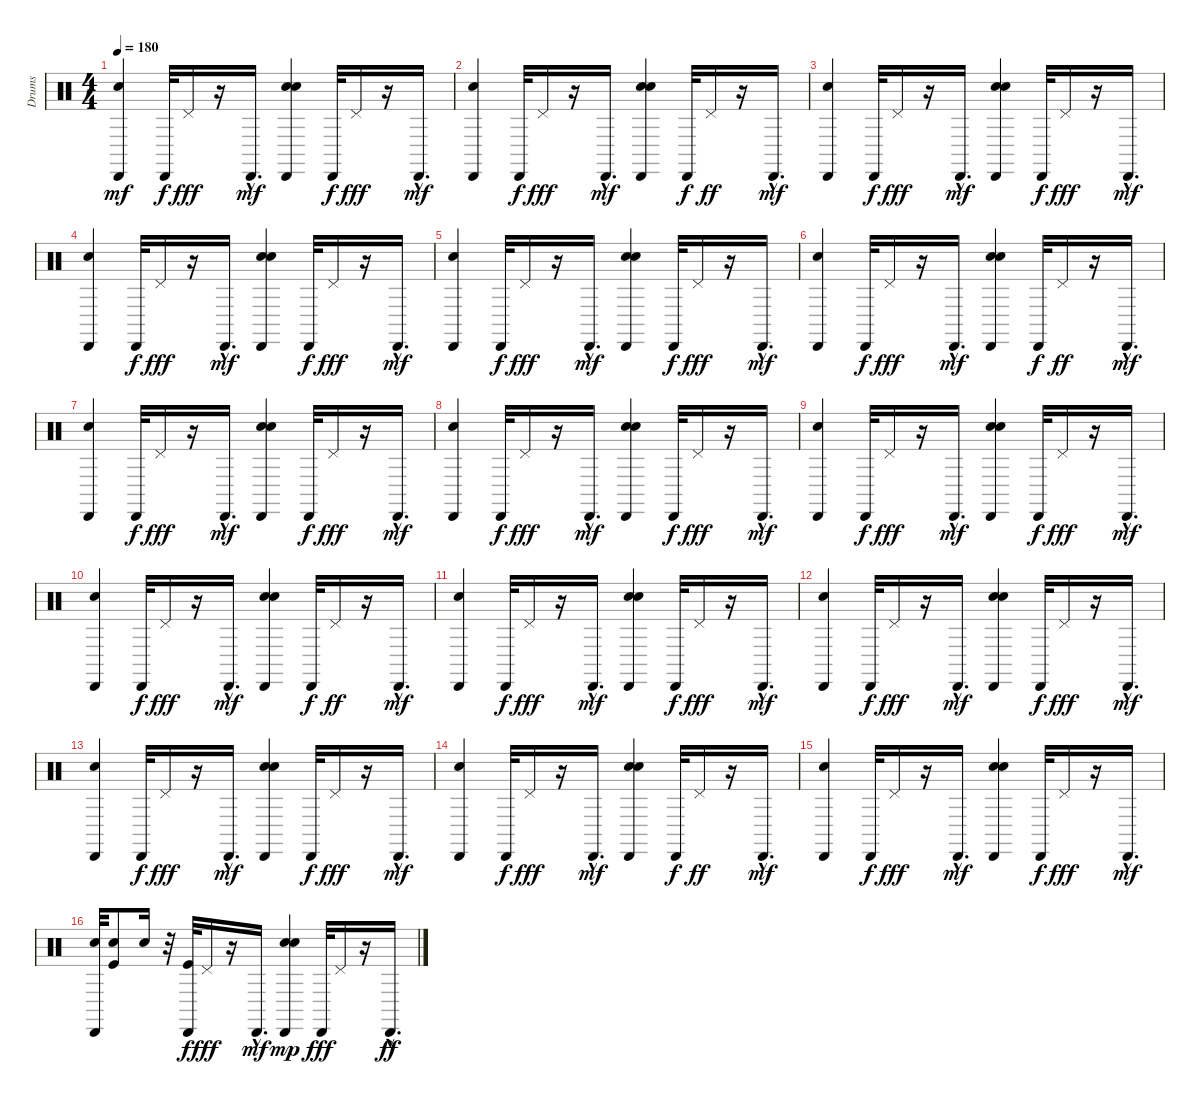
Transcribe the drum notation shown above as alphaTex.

\track ("Drums" "Drums") {instrument percussion}
\staff {score}
\articulation defaults
\ts (4 4)
\tempo 180
\clef neutral
\ks c
("Snare (hit) 2" "Cabasa (hit)").4{dy mf} "Cabasa (hit)".32{dy f} "Pedal Hi-Hat (hit)".16{dy fff} r.16 "Cabasa (hit)"{hac}.16{d dy mf} ("Snare (hit) 2" "Snare (hit) 2" "Cabasa (hit)").4 "Cabasa (hit)".32{dy f} "Pedal Hi-Hat (hit)".16{dy fff} r.16 "Cabasa (hit)"{hac}.16{d dy mf} |
("Snare (hit) 2" "Cabasa (hit)").4 "Cabasa (hit)".32{dy f} "Pedal Hi-Hat (hit)".16{dy fff} r.16 "Cabasa (hit)"{hac}.16{d dy mf} ("Snare (hit) 2" "Snare (hit) 2" "Cabasa (hit)").4 "Cabasa (hit)".32{dy f} "Pedal Hi-Hat (hit)".16{dy ff} r.16 "Cabasa (hit)"{hac}.16{d dy mf} |
("Snare (hit) 2" "Cabasa (hit)").4 "Cabasa (hit)".32{dy f} "Pedal Hi-Hat (hit)".16{dy fff} r.16 "Cabasa (hit)"{hac}.16{d dy mf} ("Snare (hit) 2" "Snare (hit) 2" "Cabasa (hit)").4 "Cabasa (hit)".32{dy f} "Pedal Hi-Hat (hit)".16{dy fff} r.16 "Cabasa (hit)"{hac}.16{d dy mf} |
("Snare (hit) 2" "Cabasa (hit)").4 "Cabasa (hit)".32{dy f} "Pedal Hi-Hat (hit)".16{dy fff} r.16 "Cabasa (hit)"{hac}.16{d dy mf} ("Snare (hit) 2" "Snare (hit) 2" "Cabasa (hit)").4 "Cabasa (hit)".32{dy f} "Pedal Hi-Hat (hit)".16{dy fff} r.16 "Cabasa (hit)"{hac}.16{d dy mf} |
("Snare (hit) 2" "Cabasa (hit)").4 "Cabasa (hit)".32{dy f} "Pedal Hi-Hat (hit)".16{dy fff} r.16 "Cabasa (hit)"{hac}.16{d dy mf} ("Snare (hit) 2" "Snare (hit) 2" "Cabasa (hit)").4 "Cabasa (hit)".32{dy f} "Pedal Hi-Hat (hit)".16{dy fff} r.16 "Cabasa (hit)"{hac}.16{d dy mf} |
("Snare (hit) 2" "Cabasa (hit)").4 "Cabasa (hit)".32{dy f} "Pedal Hi-Hat (hit)".16{dy fff} r.16 "Cabasa (hit)"{hac}.16{d dy mf} ("Snare (hit) 2" "Snare (hit) 2" "Cabasa (hit)").4 "Cabasa (hit)".32{dy f} "Pedal Hi-Hat (hit)".16{dy ff} r.16 "Cabasa (hit)"{hac}.16{d dy mf} |
("Snare (hit) 2" "Cabasa (hit)").4 "Cabasa (hit)".32{dy f} "Pedal Hi-Hat (hit)".16{dy fff} r.16 "Cabasa (hit)"{hac}.16{d dy mf} ("Snare (hit) 2" "Snare (hit) 2" "Cabasa (hit)").4 "Cabasa (hit)".32{dy f} "Pedal Hi-Hat (hit)".16{dy fff} r.16 "Cabasa (hit)"{hac}.16{d dy mf} |
("Snare (hit) 2" "Cabasa (hit)").4 "Cabasa (hit)".32{dy f} "Pedal Hi-Hat (hit)".16{dy fff} r.16 "Cabasa (hit)"{hac}.16{d dy mf} ("Snare (hit) 2" "Snare (hit) 2" "Cabasa (hit)").4 "Cabasa (hit)".32{dy f} "Pedal Hi-Hat (hit)".16{dy fff} r.16 "Cabasa (hit)"{hac}.16{d dy mf} |
("Snare (hit) 2" "Cabasa (hit)").4 "Cabasa (hit)".32{dy f} "Pedal Hi-Hat (hit)".16{dy fff} r.16 "Cabasa (hit)"{hac}.16{d dy mf} ("Snare (hit) 2" "Snare (hit) 2" "Cabasa (hit)").4 "Cabasa (hit)".32{dy f} "Pedal Hi-Hat (hit)".16{dy fff} r.16 "Cabasa (hit)"{hac}.16{d dy mf} |
("Snare (hit) 2" "Cabasa (hit)").4 "Cabasa (hit)".32{dy f} "Pedal Hi-Hat (hit)".16{dy fff} r.16 "Cabasa (hit)"{hac}.16{d dy mf} ("Snare (hit) 2" "Snare (hit) 2" "Cabasa (hit)").4 "Cabasa (hit)".32{dy f} "Pedal Hi-Hat (hit)".16{dy ff} r.16 "Cabasa (hit)"{hac}.16{d dy mf} |
("Snare (hit) 2" "Cabasa (hit)").4 "Cabasa (hit)".32{dy f} "Pedal Hi-Hat (hit)".16{dy fff} r.16 "Cabasa (hit)"{hac}.16{d dy mf} ("Snare (hit) 2" "Snare (hit) 2" "Cabasa (hit)").4 "Cabasa (hit)".32{dy f} "Pedal Hi-Hat (hit)".16{dy fff} r.16 "Cabasa (hit)"{hac}.16{d dy mf} |
("Snare (hit) 2" "Cabasa (hit)").4 "Cabasa (hit)".32{dy f} "Pedal Hi-Hat (hit)".16{dy fff} r.16 "Cabasa (hit)"{hac}.16{d dy mf} ("Snare (hit) 2" "Snare (hit) 2" "Cabasa (hit)").4 "Cabasa (hit)".32{dy f} "Pedal Hi-Hat (hit)".16{dy fff} r.16 "Cabasa (hit)"{hac}.16{d dy mf} |
("Snare (hit) 2" "Cabasa (hit)").4 "Cabasa (hit)".32{dy f} "Pedal Hi-Hat (hit)".16{dy fff} r.16 "Cabasa (hit)"{hac}.16{d dy mf} ("Snare (hit) 2" "Snare (hit) 2" "Cabasa (hit)").4 "Cabasa (hit)".32{dy f} "Pedal Hi-Hat (hit)".16{dy fff} r.16 "Cabasa (hit)"{hac}.16{d dy mf} |
("Snare (hit) 2" "Cabasa (hit)").4 "Cabasa (hit)".32{dy f} "Pedal Hi-Hat (hit)".16{dy fff} r.16 "Cabasa (hit)"{hac}.16{d dy mf} ("Snare (hit) 2" "Snare (hit) 2" "Cabasa (hit)").4 "Cabasa (hit)".32{dy f} "Pedal Hi-Hat (hit)".16{dy ff} r.16 "Cabasa (hit)"{hac}.16{d dy mf} |
("Snare (hit) 2" "Cabasa (hit)").4 "Cabasa (hit)".32{dy f} "Pedal Hi-Hat (hit)".16{dy fff} r.16 "Cabasa (hit)"{hac}.16{d dy mf} ("Snare (hit) 2" "Snare (hit) 2" "Cabasa (hit)").4 "Cabasa (hit)".32{dy f} "Pedal Hi-Hat (hit)".16{dy fff} r.16 "Cabasa (hit)"{hac}.16{d dy mf} |
("Snare (hit) 2" "Cabasa (hit)").32 ("Snare (hit)" "Kick (hit)").8 "Snare (hit)".16 r.32 ("Kick (hit)" "Cabasa (hit)").32{dy f} "Pedal Hi-Hat (hit)".16{dy fff} r.16 "Cabasa (hit)"{hac}.16{d dy mf} ("Snare (hit) 2" "Snare (hit) 2" "Cabasa (hit)").4{dy mp} "Cabasa (hit)".32{dy fff} "Pedal Hi-Hat (hit)".16 r.16 "Cabasa (hit)"{hac}.16{d dy ff}
